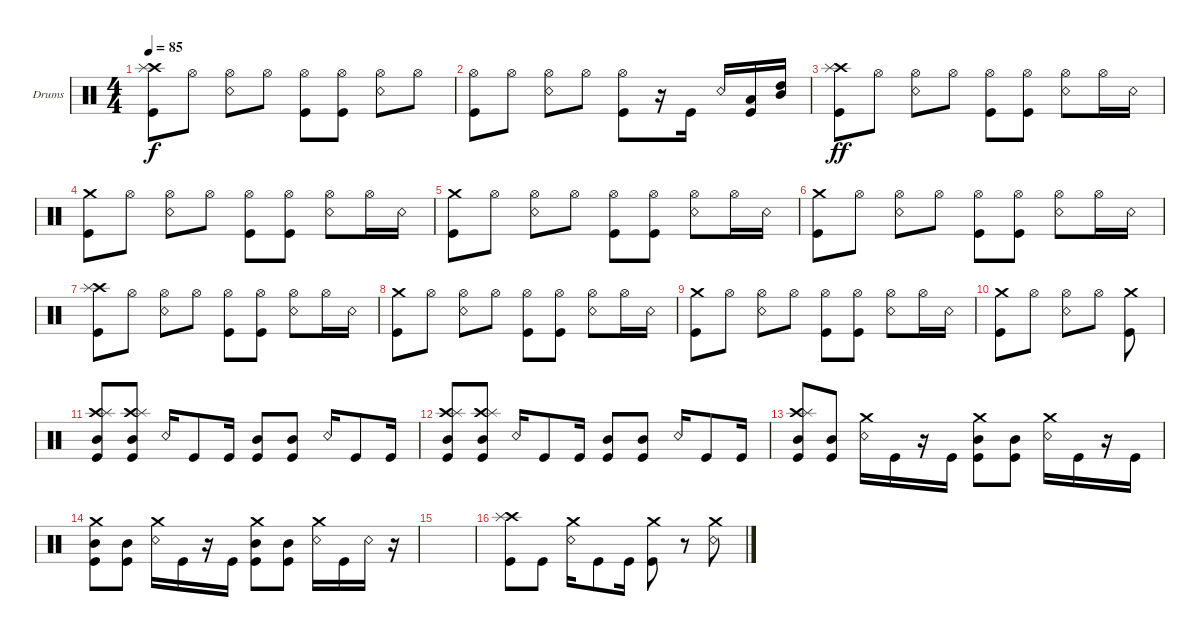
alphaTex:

\defaultSystemsLayout 4
\bracketExtendMode groupsimilarinstruments
\firstSystemTrackNameOrientation horizontal
\otherSystemsTrackNameOrientation horizontal
\track ("Drumkit" "Drums") {instrument percussion}
\staff {score}
\articulation defaults
\ts (4 4)
\tempo 85
\clef neutral
\scale
0.333333
\ks c
("Kick (hit)" "Crash high (hit)" "Splash (hit)").8{dy f} "Hi-Hat (open)".8 ("Snare (rim shot)" "Hi-Hat (open)").8 "Hi-Hat (open)".8 ("Kick (hit)" "Hi-Hat (open)").8 ("Kick (hit)" "Hi-Hat (open)").8 ("Snare (rim shot)" "Hi-Hat (open)").8 "Hi-Hat (open)".8 |
\scale
0.333333 ("Kick (hit)" "Hi-Hat (open)").8 "Hi-Hat (open)".8 ("Snare (rim shot)" "Hi-Hat (open)").8 "Hi-Hat (open)".8 ("Kick (hit)" "Hi-Hat (open)").8 r.16 "Kick (hit)".16 "Snare (rim shot)".16 ("Kick (hit)" "Low Tom (hit)").16 ("Mid Tom (hit)" "High Tom (hit)").16 |
\scale
0.333333 ("Kick (hit)" "Crash high (hit)" "Splash (hit)").8{dy ff} "Hi-Hat (open)".8 ("Snare (rim shot)" "Hi-Hat (open)").8 "Hi-Hat (open)".8 ("Hi-Hat (open)" "Kick (hit)").8 ("Hi-Hat (open)" "Kick (hit)").8 ("Hi-Hat (open)" "Snare (rim shot)").8 "Hi-Hat (open)".16 "Snare (rim shot)".16 |
\scale
0.333333 ("Kick (hit)" "Crash medium (hit)").8 "Hi-Hat (open)".8 ("Snare (rim shot)" "Hi-Hat (open)").8 "Hi-Hat (open)".8 ("Hi-Hat (open)" "Kick (hit)").8 ("Hi-Hat (open)" "Kick (hit)").8 ("Hi-Hat (open)" "Snare (rim shot)").8 "Hi-Hat (open)".16 "Snare (rim shot)".16 |
\scale
0.333333 ("Kick (hit)" "Crash medium (hit)").8 "Hi-Hat (open)".8 ("Snare (rim shot)" "Hi-Hat (open)").8 "Hi-Hat (open)".8 ("Hi-Hat (open)" "Kick (hit)").8 ("Hi-Hat (open)" "Kick (hit)").8 ("Hi-Hat (open)" "Snare (rim shot)").8 "Hi-Hat (open)".16 "Snare (rim shot)".16 |
\scale
0.333333 ("Kick (hit)" "Crash medium (hit)").8 "Hi-Hat (open)".8 ("Snare (rim shot)" "Hi-Hat (open)").8 "Hi-Hat (open)".8 ("Hi-Hat (open)" "Kick (hit)").8 ("Hi-Hat (open)" "Kick (hit)").8 ("Hi-Hat (open)" "Snare (rim shot)").8 "Hi-Hat (open)".16 "Snare (rim shot)".16 |
\scale
0.333333 ("Kick (hit)" "Crash high (hit)" "Splash (hit)").8 "Hi-Hat (open)".8 ("Snare (rim shot)" "Hi-Hat (open)").8 "Hi-Hat (open)".8 ("Hi-Hat (open)" "Kick (hit)").8 ("Hi-Hat (open)" "Kick (hit)").8 ("Hi-Hat (open)" "Snare (rim shot)").8 "Hi-Hat (open)".16 "Snare (rim shot)".16 |
\scale
0.333333 ("Kick (hit)" "Crash medium (hit)").8 "Hi-Hat (open)".8 ("Snare (rim shot)" "Hi-Hat (open)").8 "Hi-Hat (open)".8 ("Hi-Hat (open)" "Kick (hit)").8 ("Hi-Hat (open)" "Kick (hit)").8 ("Hi-Hat (open)" "Snare (rim shot)").8 "Hi-Hat (open)".16 "Snare (rim shot)".16 |
\scale
0.333333 ("Kick (hit)" "Crash medium (hit)").8 "Hi-Hat (open)".8 ("Snare (rim shot)" "Hi-Hat (open)").8 "Hi-Hat (open)".8 ("Hi-Hat (open)" "Kick (hit)").8 ("Hi-Hat (open)" "Kick (hit)").8 ("Hi-Hat (open)" "Snare (rim shot)").8 "Hi-Hat (open)".16 "Snare (rim shot)".16 |
\scale
0.333333 ("Kick (hit)" "Crash medium (hit)").8 "Hi-Hat (open)".8 ("Snare (rim shot)" "Hi-Hat (open)").8 "Hi-Hat (open)".8 ("Kick (hit)" "Crash medium (hit)").8 |
\scale
0.333333 ("Crash high (hit)" "Splash (hit)" "Mid Tom (hit)" "Kick (hit)").8 ("Crash high (hit)" "Splash (hit)" "Mid Tom (hit)" "Kick (hit)").8 "Snare (rim shot)".16 "Kick (hit)".8 "Kick (hit)".16 ("Mid Tom (hit)" "Kick (hit)").8 ("Mid Tom (hit)" "Kick (hit)").8 "Snare (rim shot)".16 "Kick (hit)".8 "Kick (hit)".16 |
\scale
0.333333 ("Crash high (hit)" "Splash (hit)" "Mid Tom (hit)" "Kick (hit)").8 ("Crash high (hit)" "Splash (hit)" "Mid Tom (hit)" "Kick (hit)").8 "Snare (rim shot)".16 "Kick (hit)".8 "Kick (hit)".16 ("Mid Tom (hit)" "Kick (hit)").8 ("Mid Tom (hit)" "Kick (hit)").8 "Snare (rim shot)".16 "Kick (hit)".8 "Kick (hit)".16 |
\scale
0.333333 ("Crash high (hit)" "Splash (hit)" "Mid Tom (hit)" "Kick (hit)").8 ("Mid Tom (hit)" "Kick (hit)").8 ("Snare (rim shot)" "Crash medium (hit)").16 "Kick (hit)".16 r.16 "Kick (hit)".16 ("Mid Tom (hit)" "Kick (hit)" "Crash medium (hit)").8 ("Mid Tom (hit)" "Kick (hit)").8 ("Snare (rim shot)" "Crash medium (hit)").16 "Kick (hit)".16 r.16 "Kick (hit)".16 |
\scale
0.333333 ("Mid Tom (hit)" "Kick (hit)" "Crash medium (hit)").8 ("Mid Tom (hit)" "Kick (hit)").8 ("Snare (rim shot)" "Crash medium (hit)").16 "Kick (hit)".16 r.16 "Kick (hit)".16 ("Mid Tom (hit)" "Kick (hit)" "Crash medium (hit)").8 ("Mid Tom (hit)" "Kick (hit)").8 ("Snare (rim shot)" "Crash medium (hit)").16 "Kick (hit)".16 "Snare (rim shot)".16 r.16 |
\scale
0.333333 |
\scale
0.333333 ("Kick (hit)" "Crash high (hit)" "Splash (hit)").8 "Kick (hit)".8 ("Snare (rim shot)" "Crash medium (hit)").16 "Kick (hit)".8 "Kick (hit)".16 ("Kick (hit)" "Crash medium (hit)").8 r.8 ("Snare (rim shot)" "Crash medium (hit)").8
